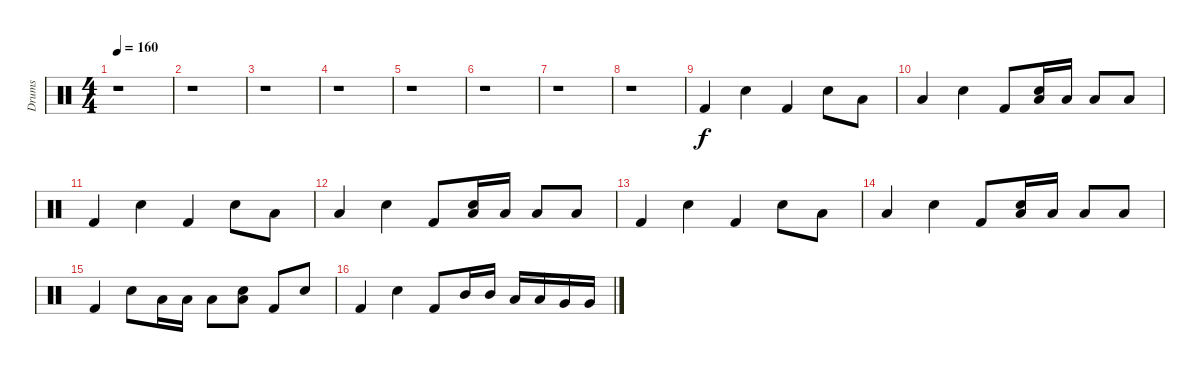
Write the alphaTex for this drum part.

\track ("Drums" "Drums") {instrument percussion}
\staff {score}
\articulation defaults
\ts (4 4)
\tempo 160
\clef neutral
\ks c
r.1{dy f} |
r.1 |
r.1 |
r.1 |
r.1 |
r.1 |
r.1 |
r.1 |
"Kick (hit) 2".4 "Snare (hit) 2".4 "Kick (hit) 2".4 "Snare (hit) 2".8 "Low Tom (hit)".8 |
"Low Tom (hit)".4 "Snare (hit) 2".4 "Kick (hit) 2".8 ("Low Tom (hit)" "Snare (hit) 2").16 "Low Tom (hit)".16 "Low Tom (hit)".8 "Low Tom (hit)".8 |
"Kick (hit) 2".4 "Snare (hit) 2".4 "Kick (hit) 2".4 "Snare (hit) 2".8 "Low Tom (hit)".8 |
"Low Tom (hit)".4 "Snare (hit) 2".4 "Kick (hit) 2".8 ("Low Tom (hit)" "Snare (hit) 2").16 "Low Tom (hit)".16 "Low Tom (hit)".8 "Low Tom (hit)".8 |
"Kick (hit) 2".4 "Snare (hit) 2".4 "Kick (hit) 2".4 "Snare (hit) 2".8 "Low Tom (hit)".8 |
"Low Tom (hit)".4 "Snare (hit) 2".4 "Kick (hit) 2".8 ("Low Tom (hit)" "Snare (hit) 2").16 "Low Tom (hit)".16 "Low Tom (hit)".8 "Low Tom (hit)".8 |
"Kick (hit) 2".4 "Snare (hit) 2".8 "Low Tom (hit)".16 "Low Tom (hit)".16 "Low Tom (hit)".8 ("Low Tom (hit)" "Snare (hit) 2").8 "Kick (hit) 2".8 "Snare (hit) 2".8 |
"Kick (hit) 2".4 "Snare (hit) 2".4 "Kick (hit) 2".8 "Mid Tom (hit)".16 "Mid Tom (hit)".16 "Low Tom (hit)".16 "Low Tom (hit)".16 "Very Low Tom (hit)".16 "Very Low Tom (hit)".16
